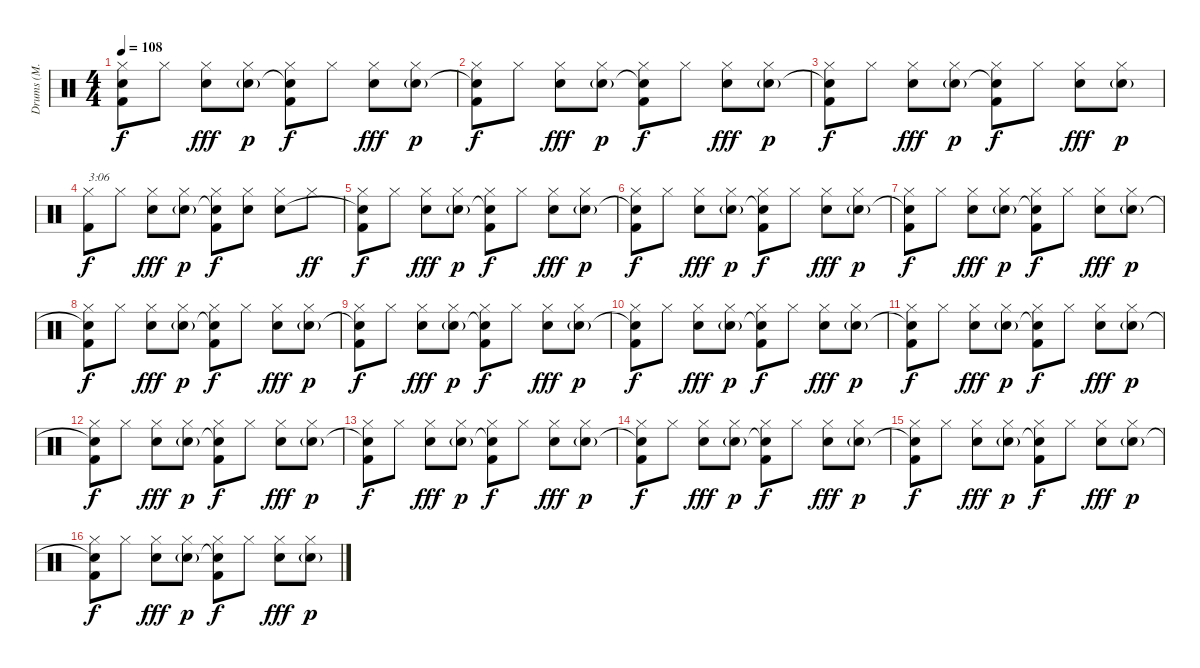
\track ("Drums (M. Chambers)" "Drums (M. ") {instrument percussion}
\staff {score}
\articulation defaults
\ts (4 4)
\tempo 108
\clef neutral
\ks c
("Hi-Hat (closed)" "Snare (hit)"{t} "Kick (hit) 2").8{dy f} "Hi-Hat (closed)".8 ("Hi-Hat (closed)" "Electric Snare (hit)").8{dy fff} ("Hi-Hat (closed)" "Electric Snare (hit)"{g}).8{dy p} ("Hi-Hat (closed)" "Snare (hit)"{t} "Kick (hit) 2").8{dy f} "Hi-Hat (closed)".8 ("Hi-Hat (closed)" "Electric Snare (hit)").8{dy fff} ("Hi-Hat (closed)" "Electric Snare (hit)"{g}).8{dy p} |
("Hi-Hat (closed)" "Snare (hit)"{t} "Kick (hit) 2").8{dy f} "Hi-Hat (closed)".8 ("Hi-Hat (closed)" "Electric Snare (hit)").8{dy fff} ("Hi-Hat (closed)" "Electric Snare (hit)"{g}).8{dy p} ("Hi-Hat (closed)" "Snare (hit)"{t} "Kick (hit) 2").8{dy f} "Hi-Hat (closed)".8 ("Hi-Hat (closed)" "Electric Snare (hit)").8{dy fff} ("Hi-Hat (closed)" "Electric Snare (hit)"{g}).8{dy p} |
("Hi-Hat (closed)" "Snare (hit)"{t} "Kick (hit) 2").8{dy f} "Hi-Hat (closed)".8 ("Hi-Hat (closed)" "Electric Snare (hit)").8{dy fff} ("Hi-Hat (closed)" "Electric Snare (hit)"{g}).8{dy p} ("Hi-Hat (closed)" "Snare (hit)"{t} "Kick (hit) 2").8{dy f} "Hi-Hat (closed)".8 ("Hi-Hat (closed)" "Electric Snare (hit)").8{dy fff} ("Hi-Hat (closed)" "Electric Snare (hit)"{g}).8{dy p} |
("Hi-Hat (closed)" "Kick (hit) 2").8{txt "3:06" dy f} "Hi-Hat (closed)".8 ("Hi-Hat (closed)" "Electric Snare (hit)").8{dy fff} ("Hi-Hat (closed)" "Electric Snare (hit)"{g}).8{dy p} ("Hi-Hat (closed)" "Snare (hit)"{t} "Kick (hit) 2").8{dy f} ("Hi-Hat (closed)" "Snare (hit) 2").8 ("Hi-Hat (closed)" "Snare (hit) 2").8 "Hi-Hat (closed)".8{dy ff} |
("Hi-Hat (closed)" "Snare (hit)"{t} "Kick (hit) 2").8{dy f} "Hi-Hat (closed)".8 ("Hi-Hat (closed)" "Electric Snare (hit)").8{dy fff} ("Hi-Hat (closed)" "Electric Snare (hit)"{g}).8{dy p} ("Hi-Hat (closed)" "Snare (hit)"{t} "Kick (hit) 2").8{dy f} "Hi-Hat (closed)".8 ("Hi-Hat (closed)" "Electric Snare (hit)").8{dy fff} ("Hi-Hat (closed)" "Electric Snare (hit)"{g}).8{dy p} |
("Hi-Hat (closed)" "Snare (hit)"{t} "Kick (hit) 2").8{dy f} "Hi-Hat (closed)".8 ("Hi-Hat (closed)" "Electric Snare (hit)").8{dy fff} ("Hi-Hat (closed)" "Electric Snare (hit)"{g}).8{dy p} ("Hi-Hat (closed)" "Snare (hit)"{t} "Kick (hit) 2").8{dy f} "Hi-Hat (closed)".8 ("Hi-Hat (closed)" "Electric Snare (hit)").8{dy fff} ("Hi-Hat (closed)" "Electric Snare (hit)"{g}).8{dy p} |
("Hi-Hat (closed)" "Snare (hit)"{t} "Kick (hit) 2").8{dy f} "Hi-Hat (closed)".8 ("Hi-Hat (closed)" "Electric Snare (hit)").8{dy fff} ("Hi-Hat (closed)" "Electric Snare (hit)"{g}).8{dy p} ("Hi-Hat (closed)" "Snare (hit)"{t} "Kick (hit) 2").8{dy f} "Hi-Hat (closed)".8 ("Hi-Hat (closed)" "Electric Snare (hit)").8{dy fff} ("Hi-Hat (closed)" "Electric Snare (hit)"{g}).8{dy p} |
("Hi-Hat (closed)" "Snare (hit)"{t} "Kick (hit) 2").8{dy f} "Hi-Hat (closed)".8 ("Hi-Hat (closed)" "Electric Snare (hit)").8{dy fff} ("Hi-Hat (closed)" "Electric Snare (hit)"{g}).8{dy p} ("Hi-Hat (closed)" "Snare (hit)"{t} "Kick (hit) 2").8{dy f} "Hi-Hat (closed)".8 ("Hi-Hat (closed)" "Electric Snare (hit)").8{dy fff} ("Hi-Hat (closed)" "Electric Snare (hit)"{g}).8{dy p} |
("Hi-Hat (closed)" "Snare (hit)"{t} "Kick (hit) 2").8{dy f} "Hi-Hat (closed)".8 ("Hi-Hat (closed)" "Electric Snare (hit)").8{dy fff} ("Hi-Hat (closed)" "Electric Snare (hit)"{g}).8{dy p} ("Hi-Hat (closed)" "Snare (hit)"{t} "Kick (hit) 2").8{dy f} "Hi-Hat (closed)".8 ("Hi-Hat (closed)" "Electric Snare (hit)").8{dy fff} ("Hi-Hat (closed)" "Electric Snare (hit)"{g}).8{dy p} |
("Hi-Hat (closed)" "Snare (hit)"{t} "Kick (hit) 2").8{dy f} "Hi-Hat (closed)".8 ("Hi-Hat (closed)" "Electric Snare (hit)").8{dy fff} ("Hi-Hat (closed)" "Electric Snare (hit)"{g}).8{dy p} ("Hi-Hat (closed)" "Snare (hit)"{t} "Kick (hit) 2").8{dy f} "Hi-Hat (closed)".8 ("Hi-Hat (closed)" "Electric Snare (hit)").8{dy fff} ("Hi-Hat (closed)" "Electric Snare (hit)"{g}).8{dy p} |
("Hi-Hat (closed)" "Snare (hit)"{t} "Kick (hit) 2").8{dy f} "Hi-Hat (closed)".8 ("Hi-Hat (closed)" "Electric Snare (hit)").8{dy fff} ("Hi-Hat (closed)" "Electric Snare (hit)"{g}).8{dy p} ("Hi-Hat (closed)" "Snare (hit)"{t} "Kick (hit) 2").8{dy f} "Hi-Hat (closed)".8 ("Hi-Hat (closed)" "Electric Snare (hit)").8{dy fff} ("Hi-Hat (closed)" "Electric Snare (hit)"{g}).8{dy p} |
("Hi-Hat (closed)" "Snare (hit)"{t} "Kick (hit) 2").8{dy f} "Hi-Hat (closed)".8 ("Hi-Hat (closed)" "Electric Snare (hit)").8{dy fff} ("Hi-Hat (closed)" "Electric Snare (hit)"{g}).8{dy p} ("Hi-Hat (closed)" "Snare (hit)"{t} "Kick (hit) 2").8{dy f} "Hi-Hat (closed)".8 ("Hi-Hat (closed)" "Electric Snare (hit)").8{dy fff} ("Hi-Hat (closed)" "Electric Snare (hit)"{g}).8{dy p} |
("Hi-Hat (closed)" "Snare (hit)"{t} "Kick (hit) 2").8{dy f} "Hi-Hat (closed)".8 ("Hi-Hat (closed)" "Electric Snare (hit)").8{dy fff} ("Hi-Hat (closed)" "Electric Snare (hit)"{g}).8{dy p} ("Hi-Hat (closed)" "Snare (hit)"{t} "Kick (hit) 2").8{dy f} "Hi-Hat (closed)".8 ("Hi-Hat (closed)" "Electric Snare (hit)").8{dy fff} ("Hi-Hat (closed)" "Electric Snare (hit)"{g}).8{dy p} |
("Hi-Hat (closed)" "Snare (hit)"{t} "Kick (hit) 2").8{dy f} "Hi-Hat (closed)".8 ("Hi-Hat (closed)" "Electric Snare (hit)").8{dy fff} ("Hi-Hat (closed)" "Electric Snare (hit)"{g}).8{dy p} ("Hi-Hat (closed)" "Snare (hit)"{t} "Kick (hit) 2").8{dy f} "Hi-Hat (closed)".8 ("Hi-Hat (closed)" "Electric Snare (hit)").8{dy fff} ("Hi-Hat (closed)" "Electric Snare (hit)"{g}).8{dy p} |
("Hi-Hat (closed)" "Snare (hit)"{t} "Kick (hit) 2").8{dy f} "Hi-Hat (closed)".8 ("Hi-Hat (closed)" "Electric Snare (hit)").8{dy fff} ("Hi-Hat (closed)" "Electric Snare (hit)"{g}).8{dy p} ("Hi-Hat (closed)" "Snare (hit)"{t} "Kick (hit) 2").8{dy f} "Hi-Hat (closed)".8 ("Hi-Hat (closed)" "Electric Snare (hit)").8{dy fff} ("Hi-Hat (closed)" "Electric Snare (hit)"{g}).8{dy p} |
("Hi-Hat (closed)" "Snare (hit)"{t} "Kick (hit) 2").8{dy f} "Hi-Hat (closed)".8 ("Hi-Hat (closed)" "Electric Snare (hit)").8{dy fff} ("Hi-Hat (closed)" "Electric Snare (hit)"{g}).8{dy p} ("Hi-Hat (closed)" "Snare (hit)"{t} "Kick (hit) 2").8{dy f} "Hi-Hat (closed)".8 ("Hi-Hat (closed)" "Electric Snare (hit)").8{dy fff} ("Hi-Hat (closed)" "Electric Snare (hit)"{g}).8{dy p}
